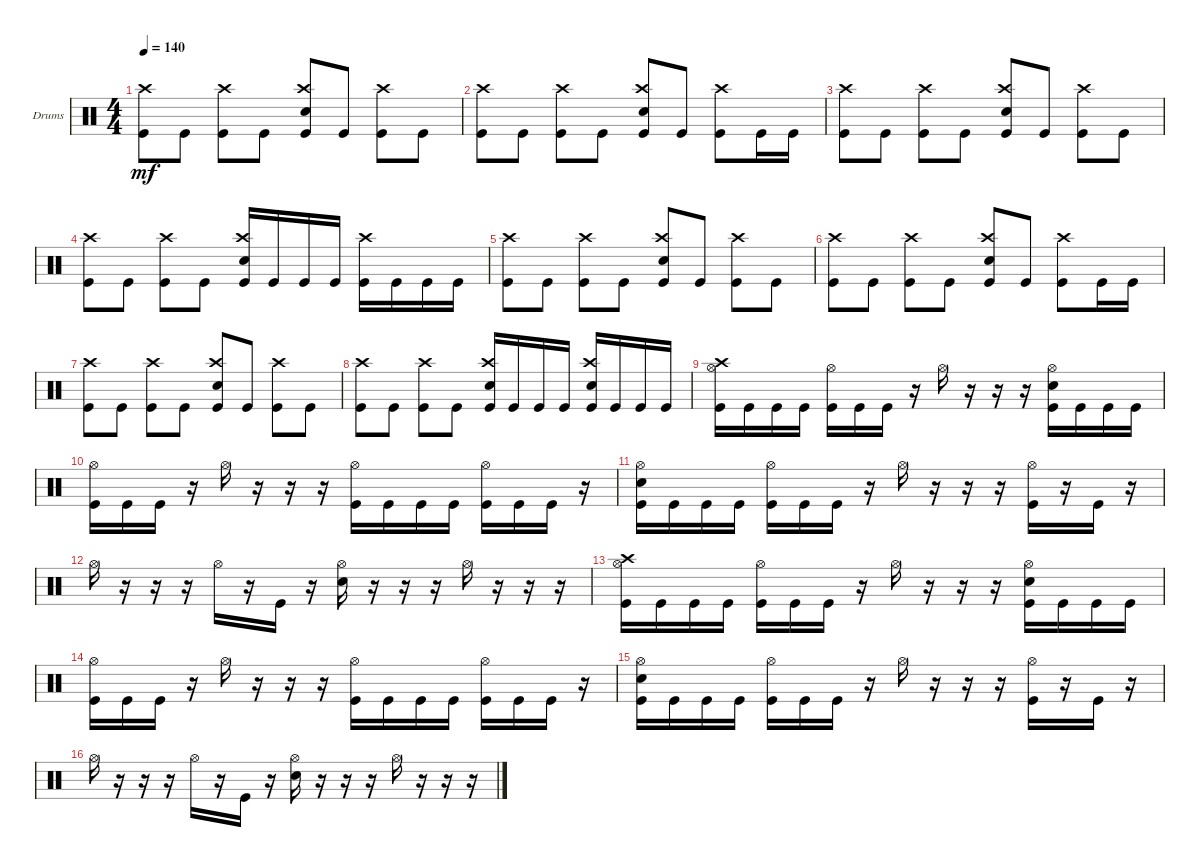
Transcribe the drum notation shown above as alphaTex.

\bracketExtendMode groupsimilarinstruments
\firstSystemTrackNameOrientation horizontal
\otherSystemsTrackNameOrientation horizontal
\track ("Drumkit" "Drums") {instrument percussion}
\staff {score}
\articulation defaults
\ts (4 4)
\tempo 140
\clef neutral
\ks c
("Kick (hit)" "Crash high (hit)").8{dy mf} "Kick (hit)".8 ("Kick (hit)" "Crash high (hit)").8 "Kick (hit)".8 ("Kick (hit)" "Snare (hit) 2" "Crash high (hit)").8 "Kick (hit)".8 ("Kick (hit)" "Crash high (hit)").8 "Kick (hit)".8 |
("Kick (hit)" "Crash high (hit)").8 "Kick (hit)".8 ("Kick (hit)" "Crash high (hit)").8 "Kick (hit)".8 ("Kick (hit)" "Snare (hit) 2" "Crash high (hit)").8 "Kick (hit)".8 ("Kick (hit)" "Crash high (hit)").8 "Kick (hit)".16 "Kick (hit)".16 |
("Kick (hit)" "Crash high (hit)").8 "Kick (hit)".8 ("Kick (hit)" "Crash high (hit)").8 "Kick (hit)".8 ("Kick (hit)" "Snare (hit) 2" "Crash high (hit)").8 "Kick (hit)".8 ("Kick (hit)" "Crash high (hit)").8 "Kick (hit)".8 |
("Kick (hit)" "Crash high (hit)").8 "Kick (hit)".8 ("Kick (hit)" "Crash high (hit)").8 "Kick (hit)".8 ("Kick (hit)" "Snare (hit) 2" "Crash high (hit)").16 "Kick (hit)".16 "Kick (hit)".16 "Kick (hit)".16 ("Kick (hit)" "Crash high (hit)").16 "Kick (hit)".16 "Kick (hit)".16 "Kick (hit)".16 |
("Kick (hit)" "Crash high (hit)").8 "Kick (hit)".8 ("Kick (hit)" "Crash high (hit)").8 "Kick (hit)".8 ("Kick (hit)" "Snare (hit) 2" "Crash high (hit)").8 "Kick (hit)".8 ("Kick (hit)" "Crash high (hit)").8 "Kick (hit)".8 |
("Kick (hit)" "Crash high (hit)").8 "Kick (hit)".8 ("Kick (hit)" "Crash high (hit)").8 "Kick (hit)".8 ("Kick (hit)" "Snare (hit) 2" "Crash high (hit)").8 "Kick (hit)".8 ("Kick (hit)" "Crash high (hit)").8 "Kick (hit)".16 "Kick (hit)".16 |
("Kick (hit)" "Crash high (hit)").8 "Kick (hit)".8 ("Kick (hit)" "Crash high (hit)").8 "Kick (hit)".8 ("Kick (hit)" "Snare (hit) 2" "Crash high (hit)").8 "Kick (hit)".8 ("Kick (hit)" "Crash high (hit)").8 "Kick (hit)".8 |
("Kick (hit)" "Crash high (hit)").8 "Kick (hit)".8 ("Kick (hit)" "Crash high (hit)").8 "Kick (hit)".8 ("Kick (hit)" "Snare (hit) 2" "Crash high (hit)").16 "Kick (hit)".16 "Kick (hit)".16 "Kick (hit)".16 ("Kick (hit)" "Crash high (hit)" "Snare (hit) 2").16 "Kick (hit)".16 "Kick (hit)".16 "Kick (hit)".16 |
("Kick (hit)" "Hi-Hat (open)" "Crash high (hit)").16 "Kick (hit)".16 "Kick (hit)".16 "Kick (hit)".16 ("Kick (hit)" "Hi-Hat (open)").16 "Kick (hit)".16 "Kick (hit)".16 r.16 "Hi-Hat (open)".16 r.16 r.16 r.16 ("Kick (hit)" "Snare (hit) 2" "Hi-Hat (open)").16 "Kick (hit)".16 "Kick (hit)".16 "Kick (hit)".16 |
("Kick (hit)" "Hi-Hat (open)").16 "Kick (hit)".16 "Kick (hit)".16 r.16 "Hi-Hat (open)".16 r.16 r.16 r.16 ("Kick (hit)" "Hi-Hat (open)").16 "Kick (hit)".16 "Kick (hit)".16 "Kick (hit)".16 ("Kick (hit)" "Hi-Hat (open)").16 "Kick (hit)".16 "Kick (hit)".16 r.16 |
("Kick (hit)" "Snare (hit) 2" "Hi-Hat (open)").16 "Kick (hit)".16 "Kick (hit)".16 "Kick (hit)".16 ("Kick (hit)" "Hi-Hat (open)").16 "Kick (hit)".16 "Kick (hit)".16 r.16 "Hi-Hat (open)".16 r.16 r.16 r.16 ("Hi-Hat (open)" "Kick (hit)").16 r.16 "Kick (hit)".16 r.16 |
"Hi-Hat (open)".16 r.16 r.16 r.16 "Hi-Hat (open)".16 r.16 "Kick (hit)".16 r.16 ("Hi-Hat (open)" "Snare (hit) 2").16 r.16 r.16 r.16 "Hi-Hat (open)".16 r.16 r.16 r.16 |
("Kick (hit)" "Hi-Hat (open)" "Crash high (hit)").16 "Kick (hit)".16 "Kick (hit)".16 "Kick (hit)".16 ("Kick (hit)" "Hi-Hat (open)").16 "Kick (hit)".16 "Kick (hit)".16 r.16 "Hi-Hat (open)".16 r.16 r.16 r.16 ("Kick (hit)" "Snare (hit) 2" "Hi-Hat (open)").16 "Kick (hit)".16 "Kick (hit)".16 "Kick (hit)".16 |
("Kick (hit)" "Hi-Hat (open)").16 "Kick (hit)".16 "Kick (hit)".16 r.16 "Hi-Hat (open)".16 r.16 r.16 r.16 ("Kick (hit)" "Hi-Hat (open)").16 "Kick (hit)".16 "Kick (hit)".16 "Kick (hit)".16 ("Kick (hit)" "Hi-Hat (open)").16 "Kick (hit)".16 "Kick (hit)".16 r.16 |
("Kick (hit)" "Snare (hit) 2" "Hi-Hat (open)").16 "Kick (hit)".16 "Kick (hit)".16 "Kick (hit)".16 ("Kick (hit)" "Hi-Hat (open)").16 "Kick (hit)".16 "Kick (hit)".16 r.16 "Hi-Hat (open)".16 r.16 r.16 r.16 ("Hi-Hat (open)" "Kick (hit)").16 r.16 "Kick (hit)".16 r.16 |
"Hi-Hat (open)".16 r.16 r.16 r.16 "Hi-Hat (open)".16 r.16 "Kick (hit)".16 r.16 ("Hi-Hat (open)" "Snare (hit) 2").16 r.16 r.16 r.16 "Hi-Hat (open)".16 r.16 r.16 r.16
